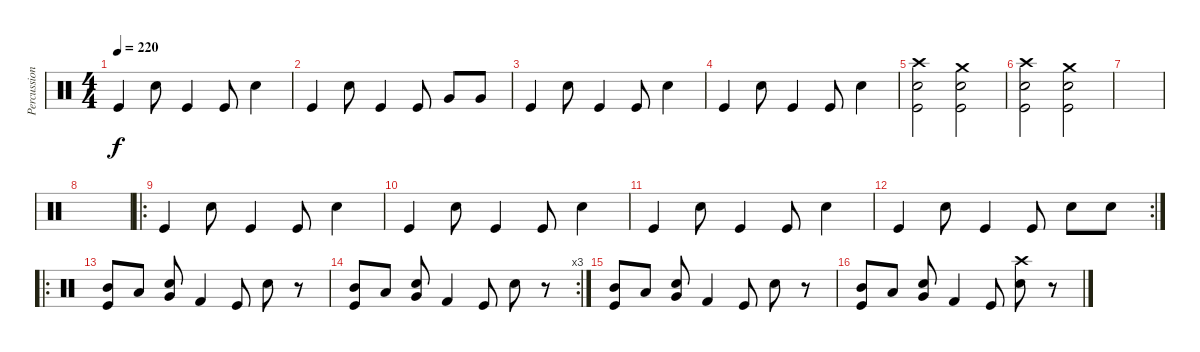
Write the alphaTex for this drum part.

\track ("Percussion" "Percussion") {instrument percussion}
\staff {score}
\articulation defaults
\ts (4 4)
\tempo 220
\clef neutral
\ks c "Kick (hit)".4{dy f} "Snare (hit) 2".8 "Kick (hit)".4 "Kick (hit)".8 "Snare (hit) 2".4
|
"Kick (hit)".4 "Snare (hit) 2".8 "Kick (hit)".4 "Kick (hit)".8 "Very Low Tom (hit)".8 "Very Low Tom (hit)".8 |
"Kick (hit)".4 "Snare (hit) 2".8 "Kick (hit)".4 "Kick (hit)".8 "Snare (hit) 2".4 |
"Kick (hit)".4 "Snare (hit) 2".8 "Kick (hit)".4 "Kick (hit)".8 "Snare (hit) 2".4 |
("Crash high (hit)" "Kick (hit)" "Snare (hit) 2").2 ("Crash medium (hit)" "Kick (hit)" "Snare (hit) 2").2 |
("Crash high (hit)" "Kick (hit)" "Snare (hit) 2").2 ("Crash medium (hit)" "Kick (hit)" "Snare (hit) 2").2 |
|
|
\ro "Kick (hit)".4 "Snare (hit) 2".8 "Kick (hit)".4 "Kick (hit)".8 "Snare (hit) 2".4
|
"Kick (hit)".4 "Snare (hit) 2".8 "Kick (hit)".4 "Kick (hit)".8 "Snare (hit) 2".4 |
"Kick (hit)".4 "Snare (hit) 2".8 "Kick (hit)".4 "Kick (hit)".8 "Snare (hit) 2".4 |
\rc 2 "Kick (hit)".4 "Snare (hit) 2".8 "Kick (hit)".4 "Kick (hit)".8 "Snare (hit) 2".8 "Snare (hit) 2".8
|
\ro
("Kick (hit)" "Mid Tom (hit)").8 "Low Tom (hit)".8 ("Very Low Tom (hit)" "Snare (hit) 2").8 "Kick (hit) 2".4 "Kick (hit)".8 "Snare (hit) 2".8 r.8 |
\rc 3
("Kick (hit)" "Mid Tom (hit)").8 "Low Tom (hit)".8 ("Very Low Tom (hit)" "Snare (hit) 2").8 "Kick (hit) 2".4 "Kick (hit)".8 "Snare (hit) 2".8 r.8 |
("Kick (hit)" "Mid Tom (hit)").8 "Low Tom (hit)".8 ("Very Low Tom (hit)" "Snare (hit) 2").8 "Kick (hit) 2".4 "Kick (hit)".8 "Snare (hit) 2".8 r.8 |
("Kick (hit)" "Mid Tom (hit)").8 "Low Tom (hit)".8 ("Very Low Tom (hit)" "Snare (hit) 2").8 "Kick (hit) 2".4 "Kick (hit)".8 ("Snare (hit) 2" "Crash high (hit)").8 r.8
